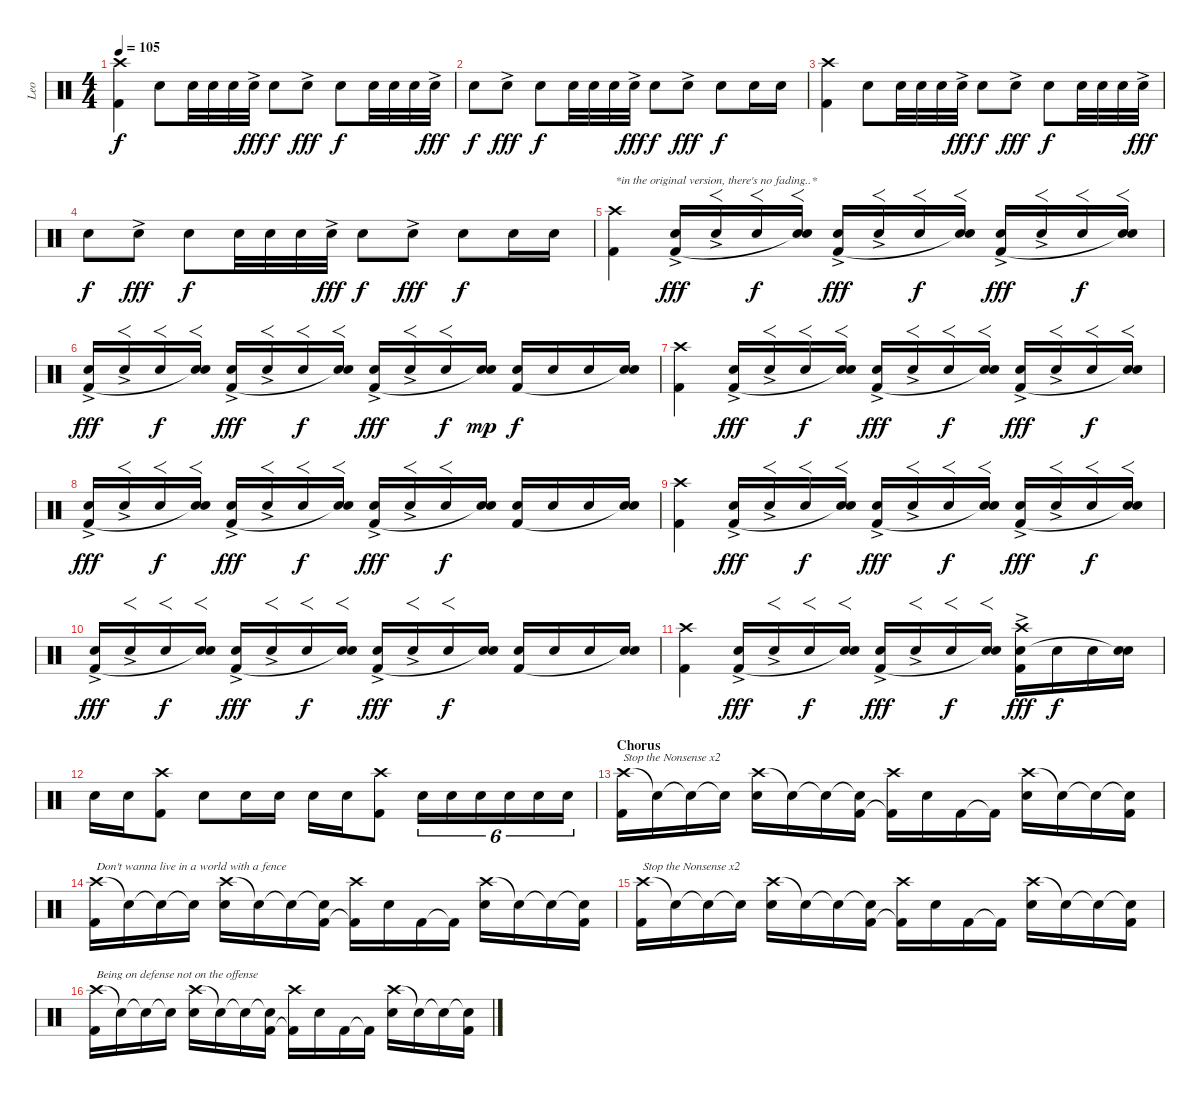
\track ("Leo" "Leo") {instrument percussion}
\staff {score}
\articulation defaults
\ts (4 4)
\tempo 105
\clef neutral
\ks c
("Crash high (hit)" "Kick (hit) 2").4{dy f} "Snare (hit) 2".8 "Snare (hit) 2".32 "Snare (hit) 2".32 "Snare (hit) 2".32 "Snare (hit) 2"{ac}.32{dy fff} "Snare (hit) 2".8{dy f} "Snare (hit) 2"{ac}.8{dy fff} "Snare (hit) 2".8{dy f} "Snare (hit) 2".32 "Snare (hit) 2".32 "Snare (hit) 2".32 "Snare (hit) 2"{ac}.32{dy fff} |
"Snare (hit) 2".8{dy f} "Snare (hit) 2"{ac}.8{dy fff} "Snare (hit) 2".8{dy f} "Snare (hit) 2".32 "Snare (hit) 2".32 "Snare (hit) 2".32 "Snare (hit) 2"{ac}.32{dy fff} "Snare (hit) 2".8{dy f} "Snare (hit) 2"{ac}.8{dy fff} "Snare (hit) 2".8{dy f} "Snare (hit) 2".16 "Snare (hit) 2".16 |
("Crash high (hit)" "Kick (hit) 2").4 "Snare (hit) 2".8 "Snare (hit) 2".32 "Snare (hit) 2".32 "Snare (hit) 2".32 "Snare (hit) 2"{ac}.32{dy fff} "Snare (hit) 2".8{dy f} "Snare (hit) 2"{ac}.8{dy fff} "Snare (hit) 2".8{dy f} "Snare (hit) 2".32 "Snare (hit) 2".32 "Snare (hit) 2".32 "Snare (hit) 2"{ac}.32{dy fff} |
"Snare (hit) 2".8{dy f} "Snare (hit) 2"{ac}.8{dy fff} "Snare (hit) 2".8{dy f} "Snare (hit) 2".32 "Snare (hit) 2".32 "Snare (hit) 2".32 "Snare (hit) 2"{ac}.32{dy fff} "Snare (hit) 2".8{dy f} "Snare (hit) 2"{ac}.8{dy fff} "Snare (hit) 2".8{dy f} "Snare (hit) 2".16 "Snare (hit) 2".16 |
("Crash high (hit)" "Kick (hit) 2").4{txt "*in the original version, there's no fading..*"} ("Snare (hit) 2"{ac} "Kick (hit) 2").16{dy fff} "Snare (hit) 2"{ac}.16{f} "Snare (hit) 2".16{f dy f} ("Snare (hit) 2" "Snare (hit)"{t}).16{f} ("Snare (hit) 2"{ac} "Kick (hit) 2").16{dy fff} "Snare (hit) 2"{ac}.16{f} "Snare (hit) 2".16{f dy f} ("Snare (hit) 2" "Snare (hit)"{t}).16{f} ("Snare (hit) 2"{ac} "Kick (hit) 2").16{dy fff} "Snare (hit) 2"{ac}.16{f} "Snare (hit) 2".16{f dy f} ("Snare (hit) 2" "Snare (hit)"{t}).16{f} |
("Snare (hit) 2"{ac} "Kick (hit) 2").16{dy fff} "Snare (hit) 2"{ac}.16{f} "Snare (hit) 2".16{f dy f} ("Snare (hit) 2" "Snare (hit)"{t}).16{f} ("Snare (hit) 2"{ac} "Kick (hit) 2").16{dy fff} "Snare (hit) 2"{ac}.16{f} "Snare (hit) 2".16{f dy f} ("Snare (hit) 2" "Snare (hit)"{t}).16{f} ("Snare (hit) 2"{ac} "Kick (hit) 2").16{dy fff} "Snare (hit) 2"{ac}.16{f} "Snare (hit) 2".16{f dy f} ("Snare (hit) 2" "Snare (hit)"{t}).16{dy mp} ("Snare (hit) 2" "Kick (hit) 2").16{dy f} "Snare (hit) 2".16 "Snare (hit) 2".16 ("Snare (hit) 2" "Snare (hit)"{t}).16 |
("Crash high (hit)" "Kick (hit) 2").4 ("Snare (hit) 2"{ac} "Kick (hit) 2").16{dy fff} "Snare (hit) 2"{ac}.16{f} "Snare (hit) 2".16{f dy f} ("Snare (hit) 2" "Snare (hit)"{t}).16{f} ("Snare (hit) 2"{ac} "Kick (hit) 2").16{dy fff} "Snare (hit) 2"{ac}.16{f} "Snare (hit) 2".16{f dy f} ("Snare (hit) 2" "Snare (hit)"{t}).16{f} ("Snare (hit) 2"{ac} "Kick (hit) 2").16{dy fff} "Snare (hit) 2"{ac}.16{f} "Snare (hit) 2".16{f dy f} ("Snare (hit) 2" "Snare (hit)"{t}).16{f} |
("Snare (hit) 2"{ac} "Kick (hit) 2").16{dy fff} "Snare (hit) 2"{ac}.16{f} "Snare (hit) 2".16{f dy f} ("Snare (hit) 2" "Snare (hit)"{t}).16{f} ("Snare (hit) 2"{ac} "Kick (hit) 2").16{dy fff} "Snare (hit) 2"{ac}.16{f} "Snare (hit) 2".16{f dy f} ("Snare (hit) 2" "Snare (hit)"{t}).16{f} ("Snare (hit) 2"{ac} "Kick (hit) 2").16{dy fff} "Snare (hit) 2"{ac}.16{f} "Snare (hit) 2".16{f dy f} ("Snare (hit) 2" "Snare (hit)"{t}).16 ("Snare (hit) 2" "Kick (hit) 2").16 "Snare (hit) 2".16 "Snare (hit) 2".16 ("Snare (hit) 2" "Snare (hit)"{t}).16 |
("Crash high (hit)" "Kick (hit) 2").4 ("Snare (hit) 2"{ac} "Kick (hit) 2").16{dy fff} "Snare (hit) 2"{ac}.16{f} "Snare (hit) 2".16{f dy f} ("Snare (hit) 2" "Snare (hit)"{t}).16{f} ("Snare (hit) 2"{ac} "Kick (hit) 2").16{dy fff} "Snare (hit) 2"{ac}.16{f} "Snare (hit) 2".16{f dy f} ("Snare (hit) 2" "Snare (hit)"{t}).16{f} ("Snare (hit) 2"{ac} "Kick (hit) 2").16{dy fff} "Snare (hit) 2"{ac}.16{f} "Snare (hit) 2".16{f dy f} ("Snare (hit) 2" "Snare (hit)"{t}).16{f} |
("Snare (hit) 2"{ac} "Kick (hit) 2").16{dy fff} "Snare (hit) 2"{ac}.16{f} "Snare (hit) 2".16{f dy f} ("Snare (hit) 2" "Snare (hit)"{t}).16{f} ("Snare (hit) 2"{ac} "Kick (hit) 2").16{dy fff} "Snare (hit) 2"{ac}.16{f} "Snare (hit) 2".16{f dy f} ("Snare (hit) 2" "Snare (hit)"{t}).16{f} ("Snare (hit) 2"{ac} "Kick (hit) 2").16{dy fff} "Snare (hit) 2"{ac}.16{f} "Snare (hit) 2".16{f dy f} ("Snare (hit) 2" "Snare (hit)"{t}).16 ("Snare (hit) 2" "Kick (hit) 2").16 "Snare (hit) 2".16 "Snare (hit) 2".16 ("Snare (hit) 2" "Snare (hit)"{t}).16 |
("Crash high (hit)" "Kick (hit) 2").4 ("Snare (hit) 2"{ac} "Kick (hit) 2").16{dy fff} "Snare (hit) 2"{ac}.16{f} "Snare (hit) 2".16{f dy f} ("Snare (hit) 2" "Snare (hit)"{t}).16{f} ("Snare (hit) 2"{ac} "Kick (hit) 2").16{dy fff} "Snare (hit) 2"{ac}.16{f} "Snare (hit) 2".16{f dy f} ("Snare (hit) 2" "Snare (hit)"{t}).16{f} ("Crash high (hit)" "Snare (hit) 2"{ac} "Kick (hit) 2").16{dy fff} "Snare (hit) 2".16{dy f} "Snare (hit) 2".16 ("Snare (hit) 2" "Snare (hit)"{t}).16 |
"Snare (hit) 2".16 "Snare (hit) 2".16 ("Crash high (hit)" "Kick (hit) 2").8 "Snare (hit) 2".8 "Snare (hit) 2".16 "Snare (hit) 2".16 "Snare (hit) 2".16 "Snare (hit) 2".16 ("Crash high (hit)" "Kick (hit) 2").8 "Snare (hit) 2".16{tu (6 4)} "Snare (hit) 2".16{tu (6 4)} "Snare (hit) 2".16{tu (6 4)} "Snare (hit) 2".16{tu (6 4)} "Snare (hit) 2".16{tu (6 4)} "Snare (hit) 2".16{tu (6 4)} |
\section ("" "Chorus")
("Crash high (hit)" "Kick (hit) 2").16{txt "Stop the Nonsense x2"} "Snare (hit)"{t}.16 "Snare (hit)"{t}.16 "Snare (hit)"{t}.16 ("Crash high (hit)" "Snare (hit) 2").16 "Snare (hit)"{t}.16 "Snare (hit)"{t}.16 ("Snare (hit)"{t} "Kick (hit) 2").16 ("Crash high (hit)" "Kick (hit) 2"{t}).16 "Snare (hit) 2".16 "Kick (hit) 2".16 "Kick (hit) 2"{t}.16 ("Crash high (hit)" "Snare (hit) 2").16 "Snare (hit) 2"{t}.16 "Snare (hit)"{t}.16 ("Snare (hit)"{t} "Kick (hit) 2").16 |
("Crash high (hit)" "Kick (hit) 2").16{txt "Don't wanna live in a world with a fence"} "Snare (hit)"{t}.16 "Snare (hit)"{t}.16 "Snare (hit)"{t}.16 ("Crash high (hit)" "Snare (hit) 2").16 "Snare (hit)"{t}.16 "Snare (hit)"{t}.16 ("Snare (hit)"{t} "Kick (hit) 2").16 ("Crash high (hit)" "Kick (hit) 2"{t}).16 "Snare (hit) 2".16 "Kick (hit) 2".16 "Kick (hit) 2"{t}.16 ("Crash high (hit)" "Snare (hit) 2").16 "Snare (hit) 2"{t}.16 "Snare (hit)"{t}.16 ("Snare (hit)"{t} "Kick (hit) 2").16 |
("Crash high (hit)" "Kick (hit) 2").16{txt "Stop the Nonsense x2"} "Snare (hit)"{t}.16 "Snare (hit)"{t}.16 "Snare (hit)"{t}.16 ("Crash high (hit)" "Snare (hit) 2").16 "Snare (hit)"{t}.16 "Snare (hit)"{t}.16 ("Snare (hit)"{t} "Kick (hit) 2").16 ("Crash high (hit)" "Kick (hit) 2"{t}).16 "Snare (hit) 2".16 "Kick (hit) 2".16 "Kick (hit) 2"{t}.16 ("Crash high (hit)" "Snare (hit) 2").16 "Snare (hit) 2"{t}.16 "Snare (hit)"{t}.16 ("Snare (hit)"{t} "Kick (hit) 2").16 |
("Crash high (hit)" "Kick (hit) 2").16{txt "Being on defense not on the offense"} "Snare (hit)"{t}.16 "Snare (hit)"{t}.16 "Snare (hit)"{t}.16 ("Crash high (hit)" "Snare (hit) 2").16 "Snare (hit)"{t}.16 "Snare (hit)"{t}.16 ("Snare (hit)"{t} "Kick (hit) 2").16 ("Crash high (hit)" "Kick (hit) 2"{t}).16 "Snare (hit) 2".16 "Kick (hit) 2".16 "Kick (hit) 2"{t}.16 ("Crash high (hit)" "Snare (hit) 2").16 "Snare (hit) 2"{t}.16 "Snare (hit)"{t}.16 ("Snare (hit)"{t} "Kick (hit) 2").16
